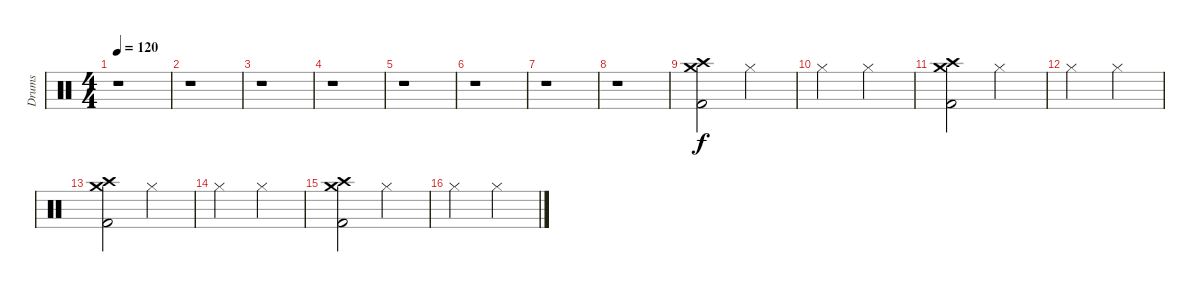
\track ("Drums" "Drums") {instrument percussion}
\staff {score}
\articulation defaults
\ts (4 4)
\tempo 120
\clef neutral
\ks c
r.1{dy f} |
r.1 |
r.1 |
r.1 |
r.1 |
r.1 |
r.1 |
r.1 |
("Crash medium (hit)" "Crash high (hit)" "Kick (hit) 2").2 "Hi-Hat (closed)".2 |
"Hi-Hat (closed)".2 "Hi-Hat (closed)".2 |
("Crash medium (hit)" "Crash high (hit)" "Kick (hit) 2").2 "Hi-Hat (closed)".2 |
"Hi-Hat (closed)".2 "Hi-Hat (closed)".2 |
("Crash medium (hit)" "Crash high (hit)" "Kick (hit) 2").2 "Hi-Hat (closed)".2 |
"Hi-Hat (closed)".2 "Hi-Hat (closed)".2 |
("Crash medium (hit)" "Crash high (hit)" "Kick (hit) 2").2 "Hi-Hat (closed)".2 |
"Hi-Hat (closed)".2 "Hi-Hat (closed)".2
